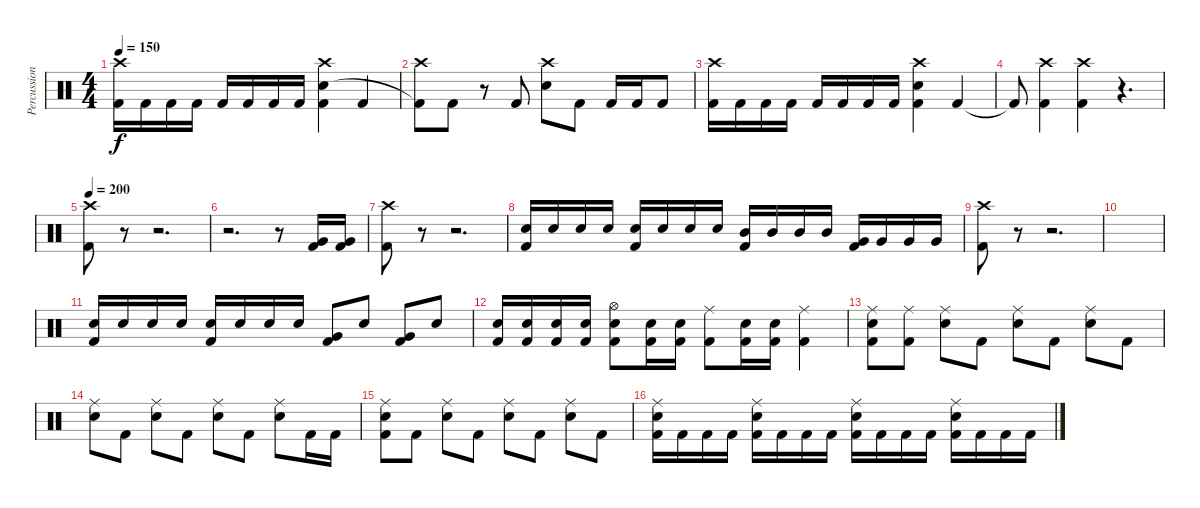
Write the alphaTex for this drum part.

\track ("Percussion" "Percussion") {instrument percussion}
\staff {score}
\articulation defaults
\ts (4 4)
\tempo 150
\clef neutral
\ks c
("Crash high (hit)" "Kick (hit) 2").16{dy f} "Kick (hit) 2".16 "Kick (hit) 2".16 "Kick (hit) 2".16 "Kick (hit) 2".16 "Kick (hit) 2".16 "Kick (hit) 2".16 "Kick (hit) 2".16 ("Crash high (hit)" "Electric Snare (hit)" "Kick (hit) 2").4 "Kick (hit) 2".4 |
("Crash high (hit)" "Kick (hit) 2"{t}).8 "Kick (hit) 2".8 r.8 "Kick (hit) 2".8 ("Crash high (hit)" "Electric Snare (hit)").8 "Kick (hit) 2".8 "Kick (hit) 2".16 "Kick (hit) 2".16 "Kick (hit) 2".8 |
("Crash high (hit)" "Kick (hit) 2").16 "Kick (hit) 2".16 "Kick (hit) 2".16 "Kick (hit) 2".16 "Kick (hit) 2".16 "Kick (hit) 2".16 "Kick (hit) 2".16 "Kick (hit) 2".16 ("Crash high (hit)" "Electric Snare (hit)" "Kick (hit) 2").4 "Kick (hit) 2".4 |
"Kick (hit) 2"{t}.8 ("Crash high (hit)" "Kick (hit) 2").4 ("Crash high (hit)" "Kick (hit) 2").4 r.4{d} |
\tempo 200
("Crash high (hit)" "Kick (hit) 2").8 r.8 r.2{d} |
r.2{d} r.8 ("Very Low Tom (hit)" "Kick (hit) 2").16 ("Very Low Tom (hit)" "Kick (hit) 2").16 |
("Crash high (hit)" "Kick (hit) 2").8 r.8 r.2{d} |
("Electric Snare (hit)" "Kick (hit) 2").16 "Electric Snare (hit)".16 "Electric Snare (hit)".16 "Electric Snare (hit)".16 ("Electric Snare (hit)" "Kick (hit) 2").16 "Electric Snare (hit)".16 "Electric Snare (hit)".16 "Electric Snare (hit)".16 ("Mid Tom (hit)" "Kick (hit) 2").16 "Mid Tom (hit)".16 "Mid Tom (hit)".16 "Mid Tom (hit)".16 ("Very Low Tom (hit)" "Kick (hit) 2").16 "Very Low Tom (hit)".16 "Very Low Tom (hit)".16 "Very Low Tom (hit)".16 |
("Crash high (hit)" "Kick (hit) 2").8 r.8 r.2{d} |
|
("Electric Snare (hit)" "Kick (hit) 2").16 "Electric Snare (hit)".16 "Electric Snare (hit)".16 "Electric Snare (hit)".16 ("Electric Snare (hit)" "Kick (hit) 2").16 "Electric Snare (hit)".16 "Electric Snare (hit)".16 "Electric Snare (hit)".16 ("Very Low Tom (hit)" "Kick (hit) 2").8 "Electric Snare (hit)".8 ("Very Low Tom (hit)" "Kick (hit) 2").8 "Electric Snare (hit)".8 |
("Electric Snare (hit)" "Kick (hit) 2").16 ("Electric Snare (hit)" "Kick (hit) 2").16 ("Electric Snare (hit)" "Kick (hit) 2").16 ("Electric Snare (hit)" "Kick (hit) 2").16 ("Hi-Hat (open)" "Electric Snare (hit)" "Kick (hit) 2").8 ("Electric Snare (hit)" "Kick (hit) 2").16 ("Electric Snare (hit)" "Kick (hit) 2").16 ("Ride (middle)" "Kick (hit) 2").8 ("Electric Snare (hit)" "Kick (hit) 2").16 ("Electric Snare (hit)" "Kick (hit) 2").16 ("Ride (middle)" "Kick (hit) 2").4 |
("Ride (middle)" "Electric Snare (hit)" "Kick (hit) 2").8 ("Ride (middle)" "Kick (hit) 2").8 ("Ride (middle)" "Electric Snare (hit)").8 "Kick (hit) 2".8 ("Ride (middle)" "Electric Snare (hit)").8 "Kick (hit) 2".8 ("Ride (middle)" "Electric Snare (hit)").8 "Kick (hit) 2".8 |
("Ride (middle)" "Electric Snare (hit)").8 "Kick (hit) 2".8 ("Ride (middle)" "Electric Snare (hit)").8 "Kick (hit) 2".8 ("Ride (middle)" "Electric Snare (hit)").8 "Kick (hit) 2".8 ("Ride (middle)" "Electric Snare (hit)").8 "Kick (hit) 2".16 "Kick (hit) 2".16 |
("Ride (middle)" "Electric Snare (hit)" "Kick (hit) 2").8 "Kick (hit) 2".8 ("Ride (middle)" "Electric Snare (hit)").8 "Kick (hit) 2".8 ("Ride (middle)" "Electric Snare (hit)").8 "Kick (hit) 2".8 ("Ride (middle)" "Electric Snare (hit)").8 "Kick (hit) 2".8 |
("Ride (middle)" "Electric Snare (hit)" "Kick (hit) 2").16 "Kick (hit) 2".16 "Kick (hit) 2".16 "Kick (hit) 2".16 ("Ride (middle)" "Electric Snare (hit)" "Kick (hit) 2").16 "Kick (hit) 2".16 "Kick (hit) 2".16 "Kick (hit) 2".16 ("Ride (middle)" "Electric Snare (hit)" "Kick (hit) 2").16 "Kick (hit) 2".16 "Kick (hit) 2".16 "Kick (hit) 2".16 ("Ride (middle)" "Electric Snare (hit)" "Kick (hit) 2").16 "Kick (hit) 2".16 "Kick (hit) 2".16 "Kick (hit) 2".16
